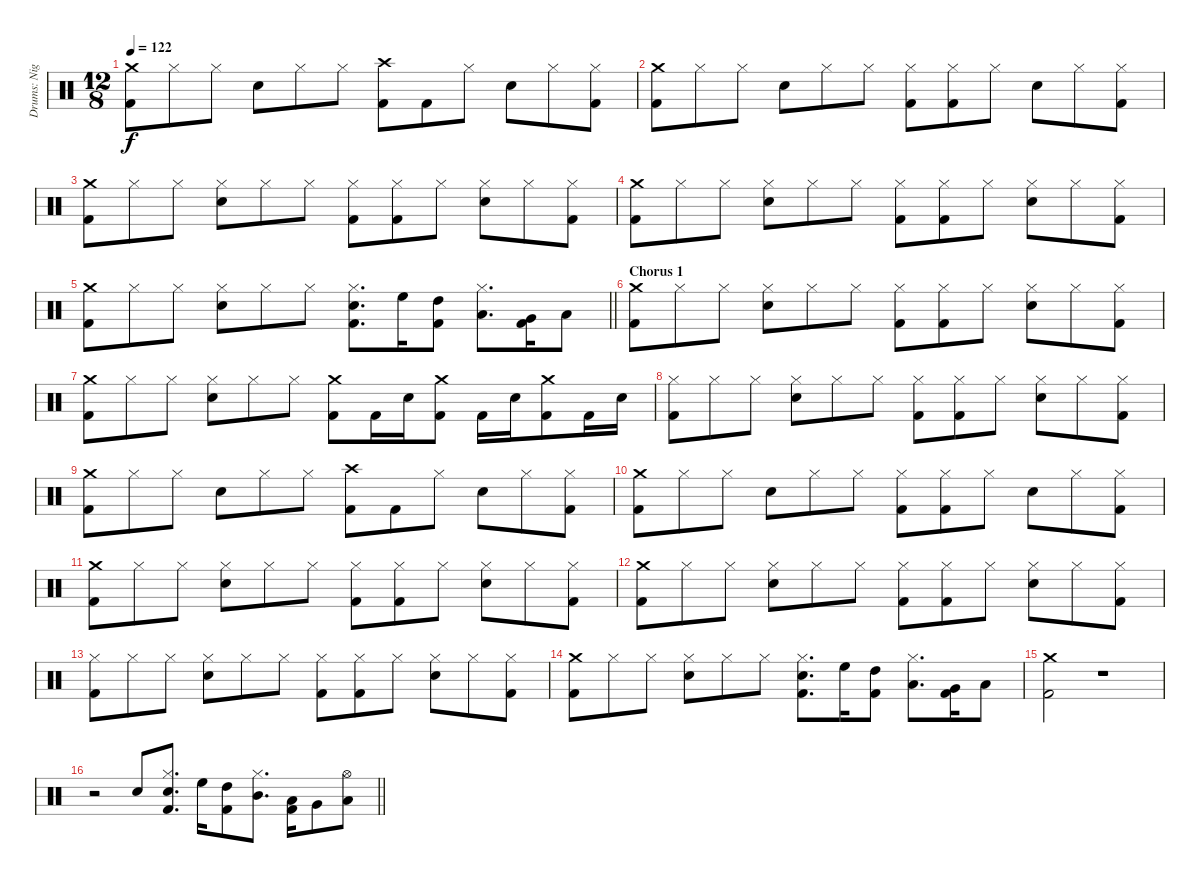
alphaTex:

\track ("Drums: Nigel Ollson" "Drums: Nig") {instrument percussion}
\staff {score}
\articulation defaults
\ts (12 8)
\tempo 122
\clef neutral
\ks c
("Crash medium (hit)" "Kick (hit) 2").8{dy f} "Hi-Hat (closed)".8 "Hi-Hat (closed)".8 "Snare (hit) 2".8 "Hi-Hat (closed)".8 "Hi-Hat (closed)".8 ("Crash high (hit)" "Kick (hit) 2").8 "Kick (hit) 2".8 "Hi-Hat (closed)".8 "Snare (hit) 2".8 "Hi-Hat (closed)".8 ("Hi-Hat (closed)" "Kick (hit) 2").8 |
("Crash medium (hit)" "Kick (hit) 2").8 "Hi-Hat (closed)".8 "Hi-Hat (closed)".8 "Snare (hit) 2".8 "Hi-Hat (closed)".8 "Hi-Hat (closed)".8 ("Hi-Hat (closed)" "Kick (hit) 2").8 ("Hi-Hat (closed)" "Kick (hit) 2").8 "Hi-Hat (closed)".8 "Snare (hit) 2".8 "Hi-Hat (closed)".8 ("Hi-Hat (closed)" "Kick (hit) 2").8 |
("Crash medium (hit)" "Kick (hit) 2").8 "Hi-Hat (closed)".8 "Hi-Hat (closed)".8 ("Hi-Hat (closed)" "Snare (hit) 2").8 "Hi-Hat (closed)".8 "Hi-Hat (closed)".8 ("Hi-Hat (closed)" "Kick (hit) 2").8 ("Hi-Hat (closed)" "Kick (hit) 2").8 "Hi-Hat (closed)".8 ("Hi-Hat (closed)" "Snare (hit) 2").8 "Hi-Hat (closed)".8 ("Hi-Hat (closed)" "Kick (hit) 2").8 |
("Crash medium (hit)" "Kick (hit) 2").8 "Hi-Hat (closed)".8 "Hi-Hat (closed)".8 ("Hi-Hat (closed)" "Snare (hit) 2").8 "Hi-Hat (closed)".8 "Hi-Hat (closed)".8 ("Hi-Hat (closed)" "Kick (hit) 2").8 ("Hi-Hat (closed)" "Kick (hit) 2").8 "Hi-Hat (closed)".8 ("Hi-Hat (closed)" "Snare (hit) 2").8 "Hi-Hat (closed)".8 ("Hi-Hat (closed)" "Kick (hit) 2").8 |
\barLineRight lightlight
("Crash medium (hit)" "Kick (hit) 2").8 "Hi-Hat (closed)".8 "Hi-Hat (closed)".8 ("Hi-Hat (closed)" "Snare (hit) 2").8 "Hi-Hat (closed)".8 "Hi-Hat (closed)".8 ("Hi-Hat (closed)" "Snare (hit) 2" "Kick (hit) 2").8{d} "High Floor Tom (hit)".16 ("High Tom (hit)" "Kick (hit) 2").8 ("Hi-Hat (closed)" "Low Tom (hit)").8{d} ("Very Low Tom (hit)" "Kick (hit) 2").16 "Low Floor Tom (hit)".8 |
\section ("" "Chorus 1")
("Crash medium (hit)" "Kick (hit) 2").8 "Hi-Hat (closed)".8 "Hi-Hat (closed)".8 ("Hi-Hat (closed)" "Snare (hit) 2").8 "Hi-Hat (closed)".8 "Hi-Hat (closed)".8 ("Hi-Hat (closed)" "Kick (hit) 2").8 ("Hi-Hat (closed)" "Kick (hit) 2").8 "Hi-Hat (closed)".8 ("Hi-Hat (closed)" "Snare (hit) 2").8 "Hi-Hat (closed)".8 ("Hi-Hat (closed)" "Kick (hit) 2").8 |
("Crash medium (hit)" "Kick (hit) 2").8 "Hi-Hat (closed)".8 "Hi-Hat (closed)".8 ("Hi-Hat (closed)" "Snare (hit) 2").8 "Hi-Hat (closed)".8 "Hi-Hat (closed)".8 ("Crash medium (hit)" "Kick (hit) 2").8 "Kick (hit) 2".16 "Snare (hit) 2".16 ("Crash medium (hit)" "Kick (hit) 2").8 "Kick (hit) 2".16 "Snare (hit) 2".16 ("Crash medium (hit)" "Kick (hit) 2").8 "Kick (hit) 2".16 "Snare (hit) 2".16 |
("Hi-Hat (closed)" "Kick (hit) 2").8 "Hi-Hat (closed)".8 "Hi-Hat (closed)".8 ("Hi-Hat (closed)" "Snare (hit) 2").8 "Hi-Hat (closed)".8 "Hi-Hat (closed)".8 ("Hi-Hat (closed)" "Kick (hit) 2").8 ("Hi-Hat (closed)" "Kick (hit) 2").8 "Hi-Hat (closed)".8 ("Hi-Hat (closed)" "Snare (hit) 2").8 "Hi-Hat (closed)".8 ("Hi-Hat (closed)" "Kick (hit) 2").8 |
("Crash medium (hit)" "Kick (hit) 2").8 "Hi-Hat (closed)".8 "Hi-Hat (closed)".8 "Snare (hit) 2".8 "Hi-Hat (closed)".8 "Hi-Hat (closed)".8 ("Crash high (hit)" "Kick (hit) 2").8 "Kick (hit) 2".8 "Hi-Hat (closed)".8 "Snare (hit) 2".8 "Hi-Hat (closed)".8 ("Hi-Hat (closed)" "Kick (hit) 2").8 |
("Crash medium (hit)" "Kick (hit) 2").8 "Hi-Hat (closed)".8 "Hi-Hat (closed)".8 "Snare (hit) 2".8 "Hi-Hat (closed)".8 "Hi-Hat (closed)".8 ("Hi-Hat (closed)" "Kick (hit) 2").8 ("Hi-Hat (closed)" "Kick (hit) 2").8 "Hi-Hat (closed)".8 "Snare (hit) 2".8 "Hi-Hat (closed)".8 ("Hi-Hat (closed)" "Kick (hit) 2").8 |
("Crash medium (hit)" "Kick (hit) 2").8 "Hi-Hat (closed)".8 "Hi-Hat (closed)".8 ("Hi-Hat (closed)" "Snare (hit) 2").8 "Hi-Hat (closed)".8 "Hi-Hat (closed)".8 ("Hi-Hat (closed)" "Kick (hit) 2").8 ("Hi-Hat (closed)" "Kick (hit) 2").8 "Hi-Hat (closed)".8 ("Hi-Hat (closed)" "Snare (hit) 2").8 "Hi-Hat (closed)".8 ("Hi-Hat (closed)" "Kick (hit) 2").8 |
("Crash medium (hit)" "Kick (hit) 2").8 "Hi-Hat (closed)".8 "Hi-Hat (closed)".8 ("Hi-Hat (closed)" "Snare (hit) 2").8 "Hi-Hat (closed)".8 "Hi-Hat (closed)".8 ("Hi-Hat (closed)" "Kick (hit) 2").8 ("Hi-Hat (closed)" "Kick (hit) 2").8 "Hi-Hat (closed)".8 ("Hi-Hat (closed)" "Snare (hit) 2").8 "Hi-Hat (closed)".8 ("Hi-Hat (closed)" "Kick (hit) 2").8 |
("Hi-Hat (closed)" "Kick (hit) 2").8 "Hi-Hat (closed)".8 "Hi-Hat (closed)".8 ("Hi-Hat (closed)" "Snare (hit) 2").8 "Hi-Hat (closed)".8 "Hi-Hat (closed)".8 ("Hi-Hat (closed)" "Kick (hit) 2").8 ("Hi-Hat (closed)" "Kick (hit) 2").8 "Hi-Hat (closed)".8 ("Hi-Hat (closed)" "Snare (hit) 2").8 "Hi-Hat (closed)".8 ("Hi-Hat (closed)" "Kick (hit) 2").8 |
("Crash medium (hit)" "Kick (hit) 2").8 "Hi-Hat (closed)".8 "Hi-Hat (closed)".8 ("Hi-Hat (closed)" "Snare (hit) 2").8 "Hi-Hat (closed)".8 "Hi-Hat (closed)".8 ("Hi-Hat (closed)" "Snare (hit) 2" "Kick (hit) 2").8{d} "High Floor Tom (hit)".16 ("High Tom (hit)" "Kick (hit) 2").8 ("Hi-Hat (closed)" "Low Tom (hit)").8{d} ("Very Low Tom (hit)" "Kick (hit) 2").16 "Low Floor Tom (hit)".8 |
("Crash medium (hit)" "Kick (hit) 2").2 r.1 |
\barLineRight lightlight
r.2 "Snare (hit) 2".8 ("Hi-Hat (closed)" "Snare (hit) 2" "Kick (hit) 2").8{d} "High Floor Tom (hit)".16 ("High Tom (hit)" "Kick (hit) 2").8 ("Hi-Hat (closed)" "Mid Tom (hit)").8{d} ("Low Tom (hit)" "Kick (hit) 2").16 "Very Low Tom (hit)".8 ("Hi-Hat (open)" "Low Floor Tom (hit)").8
